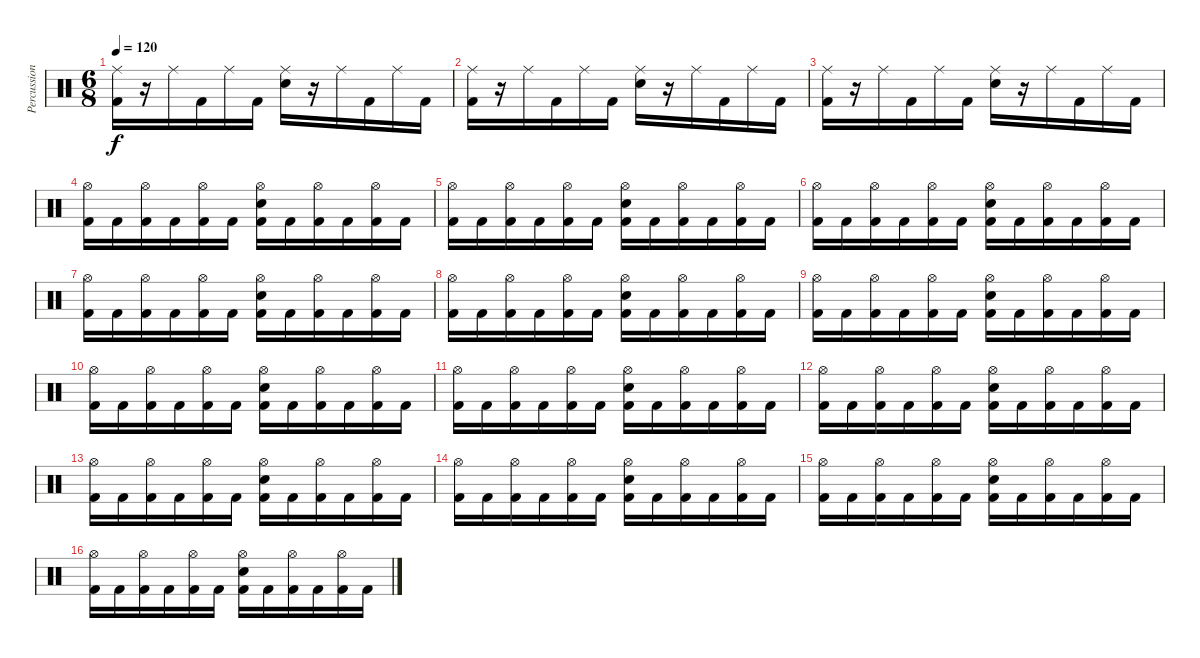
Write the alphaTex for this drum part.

\track ("Percussion" "Percussion") {instrument percussion}
\staff {score}
\articulation defaults
\ts (6 8)
\tempo 120
\clef neutral
\ks c
("Ride (middle)" "Kick (hit) 2").16{dy f} r.16 "Ride (middle)".16 "Kick (hit) 2".16 "Ride (middle)".16 "Kick (hit) 2".16 ("Ride (middle)" "Electric Snare (hit)").16 r.16 "Ride (middle)".16 "Kick (hit) 2".16 "Ride (middle)".16 "Kick (hit) 2".16 |
("Ride (middle)" "Kick (hit) 2").16 r.16 "Ride (middle)".16 "Kick (hit) 2".16 "Ride (middle)".16 "Kick (hit) 2".16 ("Ride (middle)" "Electric Snare (hit)").16 r.16 "Ride (middle)".16 "Kick (hit) 2".16 "Ride (middle)".16 "Kick (hit) 2".16 |
("Ride (middle)" "Kick (hit) 2").16 r.16 "Ride (middle)".16 "Kick (hit) 2".16 "Ride (middle)".16 "Kick (hit) 2".16 ("Ride (middle)" "Electric Snare (hit)").16 r.16 "Ride (middle)".16 "Kick (hit) 2".16 "Ride (middle)".16 "Kick (hit) 2".16 |
("Hi-Hat (open)" "Kick (hit) 2").16 "Kick (hit) 2".16 ("Hi-Hat (open)" "Kick (hit) 2").16 "Kick (hit) 2".16 ("Hi-Hat (open)" "Kick (hit) 2").16 "Kick (hit) 2".16 ("Hi-Hat (open)" "Electric Snare (hit)" "Kick (hit) 2").16 "Kick (hit) 2".16 ("Hi-Hat (open)" "Kick (hit) 2").16 "Kick (hit) 2".16 ("Hi-Hat (open)" "Kick (hit) 2").16 "Kick (hit) 2".16 |
("Hi-Hat (open)" "Kick (hit) 2").16 "Kick (hit) 2".16 ("Hi-Hat (open)" "Kick (hit) 2").16 "Kick (hit) 2".16 ("Hi-Hat (open)" "Kick (hit) 2").16 "Kick (hit) 2".16 ("Hi-Hat (open)" "Electric Snare (hit)" "Kick (hit) 2").16 "Kick (hit) 2".16 ("Hi-Hat (open)" "Kick (hit) 2").16 "Kick (hit) 2".16 ("Hi-Hat (open)" "Kick (hit) 2").16 "Kick (hit) 2".16 |
("Hi-Hat (open)" "Kick (hit) 2").16 "Kick (hit) 2".16 ("Hi-Hat (open)" "Kick (hit) 2").16 "Kick (hit) 2".16 ("Hi-Hat (open)" "Kick (hit) 2").16 "Kick (hit) 2".16 ("Hi-Hat (open)" "Electric Snare (hit)" "Kick (hit) 2").16 "Kick (hit) 2".16 ("Hi-Hat (open)" "Kick (hit) 2").16 "Kick (hit) 2".16 ("Hi-Hat (open)" "Kick (hit) 2").16 "Kick (hit) 2".16 |
("Hi-Hat (open)" "Kick (hit) 2").16 "Kick (hit) 2".16 ("Hi-Hat (open)" "Kick (hit) 2").16 "Kick (hit) 2".16 ("Hi-Hat (open)" "Kick (hit) 2").16 "Kick (hit) 2".16 ("Hi-Hat (open)" "Electric Snare (hit)" "Kick (hit) 2").16 "Kick (hit) 2".16 ("Hi-Hat (open)" "Kick (hit) 2").16 "Kick (hit) 2".16 ("Hi-Hat (open)" "Kick (hit) 2").16 "Kick (hit) 2".16 |
("Hi-Hat (open)" "Kick (hit) 2").16 "Kick (hit) 2".16 ("Hi-Hat (open)" "Kick (hit) 2").16 "Kick (hit) 2".16 ("Hi-Hat (open)" "Kick (hit) 2").16 "Kick (hit) 2".16 ("Hi-Hat (open)" "Electric Snare (hit)" "Kick (hit) 2").16 "Kick (hit) 2".16 ("Hi-Hat (open)" "Kick (hit) 2").16 "Kick (hit) 2".16 ("Hi-Hat (open)" "Kick (hit) 2").16 "Kick (hit) 2".16 |
("Hi-Hat (open)" "Kick (hit) 2").16 "Kick (hit) 2".16 ("Hi-Hat (open)" "Kick (hit) 2").16 "Kick (hit) 2".16 ("Hi-Hat (open)" "Kick (hit) 2").16 "Kick (hit) 2".16 ("Hi-Hat (open)" "Electric Snare (hit)" "Kick (hit) 2").16 "Kick (hit) 2".16 ("Hi-Hat (open)" "Kick (hit) 2").16 "Kick (hit) 2".16 ("Hi-Hat (open)" "Kick (hit) 2").16 "Kick (hit) 2".16 |
("Hi-Hat (open)" "Kick (hit) 2").16 "Kick (hit) 2".16 ("Hi-Hat (open)" "Kick (hit) 2").16 "Kick (hit) 2".16 ("Hi-Hat (open)" "Kick (hit) 2").16 "Kick (hit) 2".16 ("Hi-Hat (open)" "Electric Snare (hit)" "Kick (hit) 2").16 "Kick (hit) 2".16 ("Hi-Hat (open)" "Kick (hit) 2").16 "Kick (hit) 2".16 ("Hi-Hat (open)" "Kick (hit) 2").16 "Kick (hit) 2".16 |
("Hi-Hat (open)" "Kick (hit) 2").16 "Kick (hit) 2".16 ("Hi-Hat (open)" "Kick (hit) 2").16 "Kick (hit) 2".16 ("Hi-Hat (open)" "Kick (hit) 2").16 "Kick (hit) 2".16 ("Hi-Hat (open)" "Electric Snare (hit)" "Kick (hit) 2").16 "Kick (hit) 2".16 ("Hi-Hat (open)" "Kick (hit) 2").16 "Kick (hit) 2".16 ("Hi-Hat (open)" "Kick (hit) 2").16 "Kick (hit) 2".16 |
("Hi-Hat (open)" "Kick (hit) 2").16 "Kick (hit) 2".16 ("Hi-Hat (open)" "Kick (hit) 2").16 "Kick (hit) 2".16 ("Hi-Hat (open)" "Kick (hit) 2").16 "Kick (hit) 2".16 ("Hi-Hat (open)" "Electric Snare (hit)" "Kick (hit) 2").16 "Kick (hit) 2".16 ("Hi-Hat (open)" "Kick (hit) 2").16 "Kick (hit) 2".16 ("Hi-Hat (open)" "Kick (hit) 2").16 "Kick (hit) 2".16 |
("Hi-Hat (open)" "Kick (hit) 2").16 "Kick (hit) 2".16 ("Hi-Hat (open)" "Kick (hit) 2").16 "Kick (hit) 2".16 ("Hi-Hat (open)" "Kick (hit) 2").16 "Kick (hit) 2".16 ("Hi-Hat (open)" "Electric Snare (hit)" "Kick (hit) 2").16 "Kick (hit) 2".16 ("Hi-Hat (open)" "Kick (hit) 2").16 "Kick (hit) 2".16 ("Hi-Hat (open)" "Kick (hit) 2").16 "Kick (hit) 2".16 |
("Hi-Hat (open)" "Kick (hit) 2").16 "Kick (hit) 2".16 ("Hi-Hat (open)" "Kick (hit) 2").16 "Kick (hit) 2".16 ("Hi-Hat (open)" "Kick (hit) 2").16 "Kick (hit) 2".16 ("Hi-Hat (open)" "Electric Snare (hit)" "Kick (hit) 2").16 "Kick (hit) 2".16 ("Hi-Hat (open)" "Kick (hit) 2").16 "Kick (hit) 2".16 ("Hi-Hat (open)" "Kick (hit) 2").16 "Kick (hit) 2".16 |
("Hi-Hat (open)" "Kick (hit) 2").16 "Kick (hit) 2".16 ("Hi-Hat (open)" "Kick (hit) 2").16 "Kick (hit) 2".16 ("Hi-Hat (open)" "Kick (hit) 2").16 "Kick (hit) 2".16 ("Hi-Hat (open)" "Electric Snare (hit)" "Kick (hit) 2").16 "Kick (hit) 2".16 ("Hi-Hat (open)" "Kick (hit) 2").16 "Kick (hit) 2".16 ("Hi-Hat (open)" "Kick (hit) 2").16 "Kick (hit) 2".16 |
("Hi-Hat (open)" "Kick (hit) 2").16 "Kick (hit) 2".16 ("Hi-Hat (open)" "Kick (hit) 2").16 "Kick (hit) 2".16 ("Hi-Hat (open)" "Kick (hit) 2").16 "Kick (hit) 2".16 ("Hi-Hat (open)" "Electric Snare (hit)" "Kick (hit) 2").16 "Kick (hit) 2".16 ("Hi-Hat (open)" "Kick (hit) 2").16 "Kick (hit) 2".16 ("Hi-Hat (open)" "Kick (hit) 2").16 "Kick (hit) 2".16
